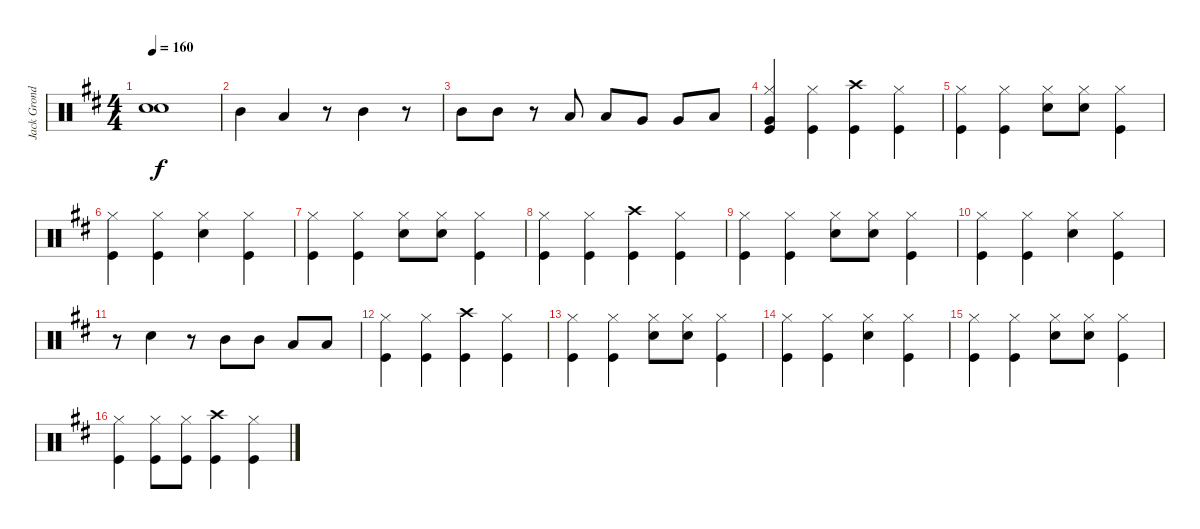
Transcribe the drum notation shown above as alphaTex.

\track ("Jack Grondin Drums" "Jack Grond") {instrument percussion}
\staff {score}
\articulation defaults
\ts (4 4)
\tempo 160
\clef neutral
\ks d
("Snare (hit)"{t} "Snare (hit)"{t}).1{dy f} |
"Mid Tom (hit)".4 "Low Tom (hit)".4 r.8 "Mid Tom (hit)".4 r.8 |
"Mid Tom (hit)".8 "Mid Tom (hit)".8 r.8 "Low Tom (hit)".8 "Low Tom (hit)".8 "Very Low Tom (hit)".8 "Very Low Tom (hit)".8 "Low Floor Tom (hit)".8 |
("Hi-Hat (closed)" "Very Low Tom (hit)" "Kick (hit)").4{volume 13} ("Hi-Hat (closed)" "Kick (hit)").4 ("Crash high (hit)" "Kick (hit)").4 ("Hi-Hat (closed)" "Kick (hit)").4 |
("Hi-Hat (closed)" "Kick (hit)").4 ("Hi-Hat (closed)" "Kick (hit)").4 ("Hi-Hat (closed)" "Snare (hit) 2").8 ("Hi-Hat (closed)" "Snare (hit) 2").8 ("Hi-Hat (closed)" "Kick (hit)").4 |
("Hi-Hat (closed)" "Kick (hit)").4 ("Hi-Hat (closed)" "Kick (hit)").4 ("Hi-Hat (closed)" "Snare (hit) 2").4 ("Hi-Hat (closed)" "Kick (hit)").4 |
("Hi-Hat (closed)" "Kick (hit)").4 ("Hi-Hat (closed)" "Kick (hit)").4 ("Hi-Hat (closed)" "Snare (hit) 2").8 ("Hi-Hat (closed)" "Snare (hit) 2").8 ("Hi-Hat (closed)" "Kick (hit)").4 |
("Hi-Hat (closed)" "Kick (hit)").4 ("Hi-Hat (closed)" "Kick (hit)").4 ("Crash high (hit)" "Kick (hit)").4 ("Hi-Hat (closed)" "Kick (hit)").4 |
("Hi-Hat (closed)" "Kick (hit)").4 ("Hi-Hat (closed)" "Kick (hit)").4 ("Hi-Hat (closed)" "Snare (hit) 2").8 ("Hi-Hat (closed)" "Snare (hit) 2").8 ("Hi-Hat (closed)" "Kick (hit)").4 |
("Hi-Hat (closed)" "Kick (hit)").4 ("Hi-Hat (closed)" "Kick (hit)").4 ("Hi-Hat (closed)" "Snare (hit) 2").4 ("Hi-Hat (closed)" "Kick (hit)").4 |
r.8 "Snare (hit) 2".4 r.8 "Mid Tom (hit)".8 "Mid Tom (hit)".8 "Low Tom (hit)".8 "Low Tom (hit)".8 |
("Hi-Hat (closed)" "Kick (hit)").4 ("Hi-Hat (closed)" "Kick (hit)").4 ("Crash high (hit)" "Kick (hit)").4 ("Hi-Hat (closed)" "Kick (hit)").4 |
("Hi-Hat (closed)" "Kick (hit)").4 ("Hi-Hat (closed)" "Kick (hit)").4 ("Hi-Hat (closed)" "Snare (hit) 2").8 ("Hi-Hat (closed)" "Snare (hit) 2").8 ("Hi-Hat (closed)" "Kick (hit)").4 |
("Hi-Hat (closed)" "Kick (hit)").4 ("Hi-Hat (closed)" "Kick (hit)").4 ("Hi-Hat (closed)" "Snare (hit) 2").4 ("Hi-Hat (closed)" "Kick (hit)").4 |
("Hi-Hat (closed)" "Kick (hit)").4 ("Hi-Hat (closed)" "Kick (hit)").4 ("Hi-Hat (closed)" "Snare (hit) 2").8 ("Hi-Hat (closed)" "Snare (hit) 2").8 ("Hi-Hat (closed)" "Kick (hit)").4 |
("Hi-Hat (closed)" "Kick (hit)").4 ("Hi-Hat (closed)" "Kick (hit)").8 ("Hi-Hat (closed)" "Kick (hit)").8 ("Crash high (hit)" "Kick (hit)").4 ("Hi-Hat (closed)" "Kick (hit)").4
